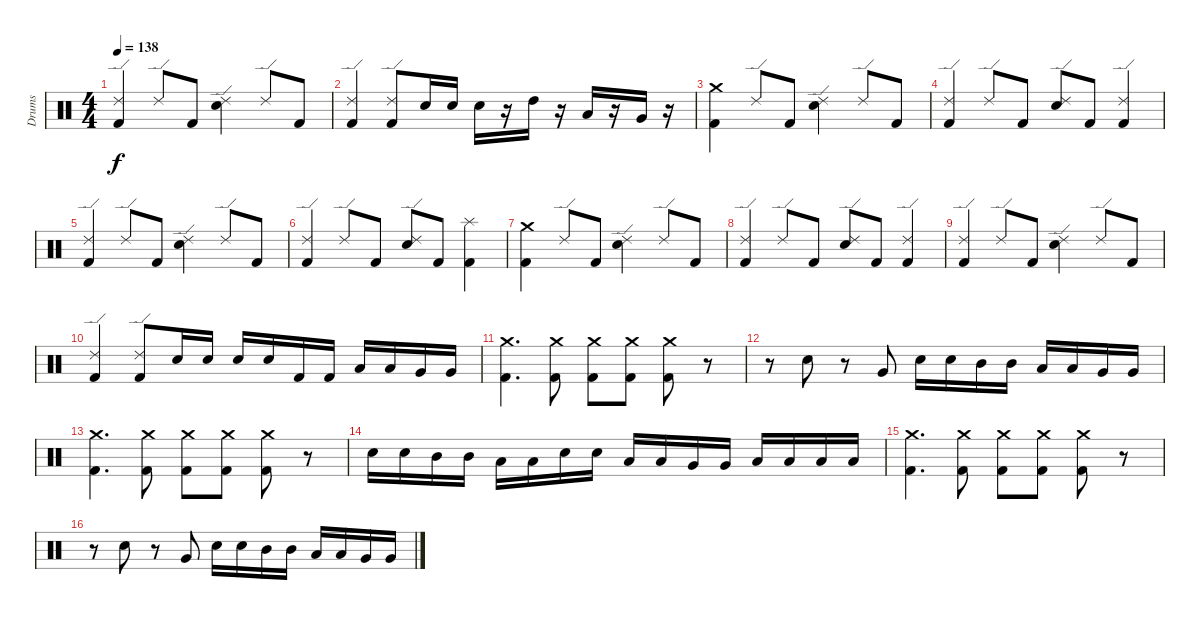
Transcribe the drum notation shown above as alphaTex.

\track ("Drums" "Drums") {instrument percussion}
\staff {score}
\articulation defaults
\ts (4 4)
\tempo 138
\clef neutral
\ks c
("Ride (edge) 2" "Kick (hit) 2").4{dy f} "Ride (edge) 2".8 "Kick (hit) 2".8 ("Ride (edge) 2" "Electric Snare (hit)").4 "Ride (edge) 2".8 "Kick (hit) 2".8 |
("Ride (edge) 2" "Kick (hit) 2").4 ("Ride (edge) 2" "Kick (hit) 2").8 "Electric Snare (hit)".16 "Electric Snare (hit)".16 "Electric Snare (hit)".16 r.16 "High Tom (hit)".16 r.16 "Low Tom (hit)".16 r.16 "Very Low Tom (hit)".16 r.16 |
("Kick (hit) 2" "Crash medium (hit)").4 "Ride (edge) 2".8 "Kick (hit) 2".8 ("Ride (edge) 2" "Electric Snare (hit)").4 "Ride (edge) 2".8 "Kick (hit) 2".8 |
("Ride (edge) 2" "Kick (hit) 2").4 "Ride (edge) 2".8 "Kick (hit) 2".8 ("Ride (edge) 2" "Electric Snare (hit)").8 "Kick (hit) 2".8 ("Ride (edge) 2" "Kick (hit) 2").4 |
("Ride (edge) 2" "Kick (hit) 2").4 "Ride (edge) 2".8 "Kick (hit) 2".8 ("Ride (edge) 2" "Electric Snare (hit)").4 "Ride (edge) 2".8 "Kick (hit) 2".8 |
("Ride (edge) 2" "Kick (hit) 2").4 "Ride (edge) 2".8 "Kick (hit) 2".8 ("Ride (edge) 2" "Electric Snare (hit)").8 "Kick (hit) 2".8 ("Splash (hit)" "Kick (hit) 2").4 |
("Kick (hit) 2" "Crash medium (hit)").4 "Ride (edge) 2".8 "Kick (hit) 2".8 ("Ride (edge) 2" "Electric Snare (hit)").4 "Ride (edge) 2".8 "Kick (hit) 2".8 |
("Ride (edge) 2" "Kick (hit) 2").4 "Ride (edge) 2".8 "Kick (hit) 2".8 ("Ride (edge) 2" "Electric Snare (hit)").8 "Kick (hit) 2".8 ("Ride (edge) 2" "Kick (hit) 2").4 |
("Ride (edge) 2" "Kick (hit) 2").4 "Ride (edge) 2".8 "Kick (hit) 2".8 ("Ride (edge) 2" "Electric Snare (hit)").4 "Ride (edge) 2".8 "Kick (hit) 2".8 |
("Ride (edge) 2" "Kick (hit) 2").4 ("Ride (edge) 2" "Kick (hit) 2").8 "Electric Snare (hit)".16 "Electric Snare (hit)".16 "Electric Snare (hit)".16 "Electric Snare (hit)".16 "Kick (hit) 2".16 "Kick (hit) 2".16 "Low Tom (hit)".16 "Low Tom (hit)".16 "Very Low Tom (hit)".16 "Very Low Tom (hit)".16 |
("Crash medium (hit)" "Kick (hit) 2").4{d} ("Crash medium (hit)" "Kick (hit) 2").8 ("Crash medium (hit)" "Kick (hit) 2").8 ("Crash medium (hit)" "Kick (hit) 2").8 ("Crash medium (hit)" "Kick (hit) 2").8 r.8 |
r.8 "Electric Snare (hit)".8 r.8 "Very Low Tom (hit)".8 "Electric Snare (hit)".16 "Electric Snare (hit)".16 "Mid Tom (hit)".16 "Mid Tom (hit)".16 "Low Tom (hit)".16 "Low Tom (hit)".16 "Very Low Tom (hit)".16 "Very Low Tom (hit)".16 |
("Crash medium (hit)" "Kick (hit) 2").4{d} ("Crash medium (hit)" "Kick (hit) 2").8 ("Crash medium (hit)" "Kick (hit) 2").8 ("Crash medium (hit)" "Kick (hit) 2").8 ("Crash medium (hit)" "Kick (hit) 2").8 r.8 |
"Electric Snare (hit)".16 "Electric Snare (hit)".16 "Mid Tom (hit)".16 "Mid Tom (hit)".16 "Low Tom (hit)".16 "Low Tom (hit)".16 "Electric Snare (hit)".16 "Electric Snare (hit)".16 "Low Tom (hit)".16 "Low Tom (hit)".16 "Very Low Tom (hit)".16 "Very Low Tom (hit)".16 "Low Floor Tom (hit)".16 "Low Floor Tom (hit)".16 "Low Floor Tom (hit)".16 "Low Floor Tom (hit)".16 |
("Crash medium (hit)" "Kick (hit) 2").4{d} ("Crash medium (hit)" "Kick (hit) 2").8 ("Crash medium (hit)" "Kick (hit) 2").8 ("Crash medium (hit)" "Kick (hit) 2").8 ("Crash medium (hit)" "Kick (hit) 2").8 r.8 |
r.8 "Electric Snare (hit)".8 r.8 "Very Low Tom (hit)".8 "Electric Snare (hit)".16 "Electric Snare (hit)".16 "Mid Tom (hit)".16 "Mid Tom (hit)".16 "Low Tom (hit)".16 "Low Tom (hit)".16 "Very Low Tom (hit)".16 "Very Low Tom (hit)".16
